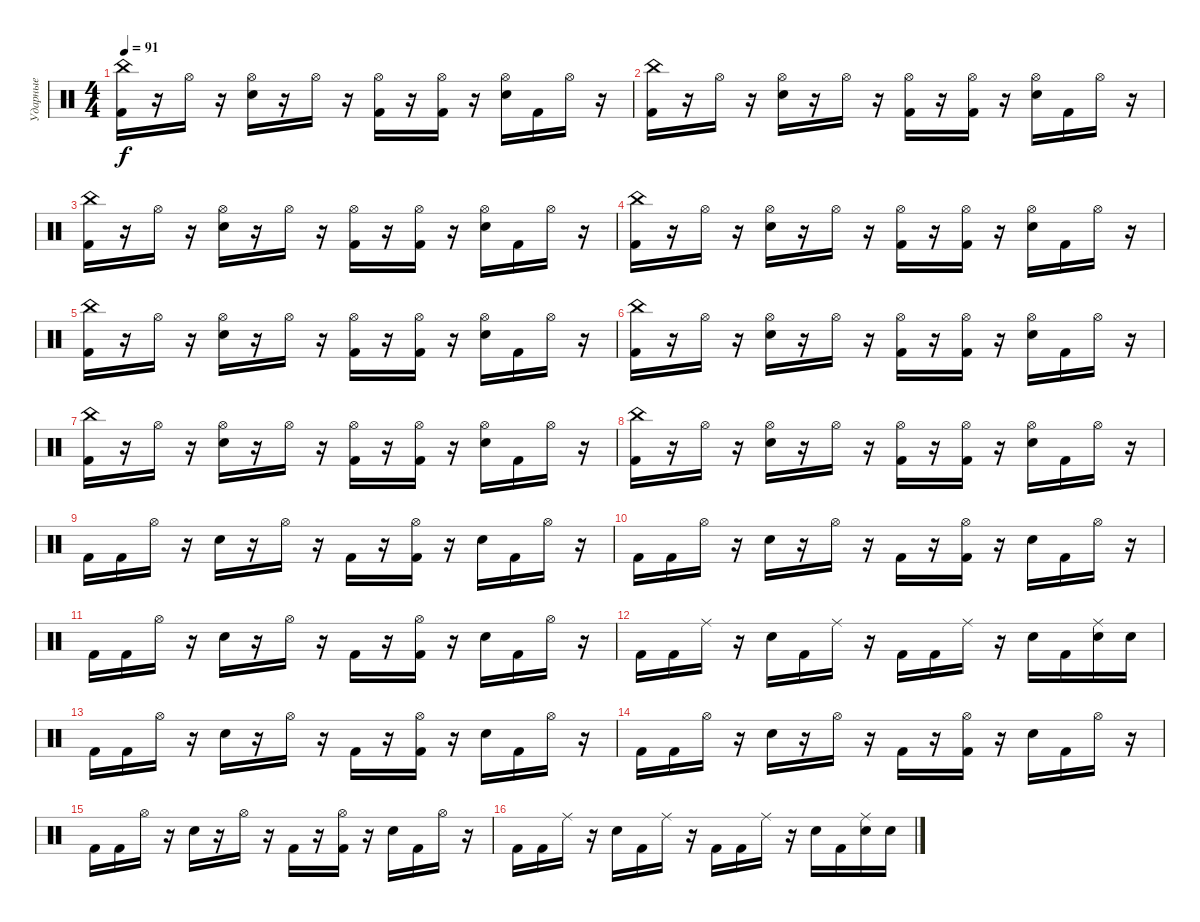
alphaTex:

\track ("Ударные" "Ударные") {instrument percussion}
\staff {score}
\articulation defaults
\ts (4 4)
\tempo 91
\clef neutral
\ks c
("China (hit)" "Kick (hit) 2").16{dy f} r.16 "Hi-Hat (open)".16 r.16 ("Hi-Hat (open)" "Snare (hit) 2").16 r.16 "Hi-Hat (open)".16 r.16 ("Hi-Hat (open)" "Kick (hit) 2").16 r.16 ("Hi-Hat (open)" "Kick (hit) 2").16 r.16 ("Hi-Hat (open)" "Snare (hit) 2").16 "Kick (hit) 2".16 "Hi-Hat (open)".16 r.16 |
("China (hit)" "Kick (hit) 2").16 r.16 "Hi-Hat (open)".16 r.16 ("Hi-Hat (open)" "Snare (hit) 2").16 r.16 "Hi-Hat (open)".16 r.16 ("Hi-Hat (open)" "Kick (hit) 2").16 r.16 ("Hi-Hat (open)" "Kick (hit) 2").16 r.16 ("Hi-Hat (open)" "Snare (hit) 2").16 "Kick (hit) 2".16 "Hi-Hat (open)".16 r.16 |
("China (hit)" "Kick (hit) 2").16 r.16 "Hi-Hat (open)".16 r.16 ("Hi-Hat (open)" "Snare (hit) 2").16 r.16 "Hi-Hat (open)".16 r.16 ("Hi-Hat (open)" "Kick (hit) 2").16 r.16 ("Hi-Hat (open)" "Kick (hit) 2").16 r.16 ("Hi-Hat (open)" "Snare (hit) 2").16 "Kick (hit) 2".16 "Hi-Hat (open)".16 r.16 |
("China (hit)" "Kick (hit) 2").16 r.16 "Hi-Hat (open)".16 r.16 ("Hi-Hat (open)" "Snare (hit) 2").16 r.16 "Hi-Hat (open)".16 r.16 ("Hi-Hat (open)" "Kick (hit) 2").16 r.16 ("Hi-Hat (open)" "Kick (hit) 2").16 r.16 ("Hi-Hat (open)" "Snare (hit) 2").16 "Kick (hit) 2".16 "Hi-Hat (open)".16 r.16 |
("China (hit)" "Kick (hit) 2").16 r.16 "Hi-Hat (open)".16 r.16 ("Hi-Hat (open)" "Snare (hit) 2").16 r.16 "Hi-Hat (open)".16 r.16 ("Hi-Hat (open)" "Kick (hit) 2").16 r.16 ("Hi-Hat (open)" "Kick (hit) 2").16 r.16 ("Hi-Hat (open)" "Snare (hit) 2").16 "Kick (hit) 2".16 "Hi-Hat (open)".16 r.16 |
("China (hit)" "Kick (hit) 2").16 r.16 "Hi-Hat (open)".16 r.16 ("Hi-Hat (open)" "Snare (hit) 2").16 r.16 "Hi-Hat (open)".16 r.16 ("Hi-Hat (open)" "Kick (hit) 2").16 r.16 ("Hi-Hat (open)" "Kick (hit) 2").16 r.16 ("Hi-Hat (open)" "Snare (hit) 2").16 "Kick (hit) 2".16 "Hi-Hat (open)".16 r.16 |
("China (hit)" "Kick (hit) 2").16 r.16 "Hi-Hat (open)".16 r.16 ("Hi-Hat (open)" "Snare (hit) 2").16 r.16 "Hi-Hat (open)".16 r.16 ("Hi-Hat (open)" "Kick (hit) 2").16 r.16 ("Hi-Hat (open)" "Kick (hit) 2").16 r.16 ("Hi-Hat (open)" "Snare (hit) 2").16 "Kick (hit) 2".16 "Hi-Hat (open)".16 r.16 |
("China (hit)" "Kick (hit) 2").16 r.16 "Hi-Hat (open)".16 r.16 ("Hi-Hat (open)" "Snare (hit) 2").16 r.16 "Hi-Hat (open)".16 r.16 ("Hi-Hat (open)" "Kick (hit) 2").16 r.16 ("Hi-Hat (open)" "Kick (hit) 2").16 r.16 ("Hi-Hat (open)" "Snare (hit) 2").16 "Kick (hit) 2".16 "Hi-Hat (open)".16 r.16 |
"Kick (hit) 2".16 "Kick (hit) 2".16 "Hi-Hat (open)".16 r.16 "Snare (hit) 2".16 r.16 "Hi-Hat (open)".16 r.16 "Kick (hit) 2".16 r.16 ("Hi-Hat (open)" "Kick (hit) 2").16 r.16 "Snare (hit) 2".16 "Kick (hit) 2".16 "Hi-Hat (open)".16 r.16 |
"Kick (hit) 2".16 "Kick (hit) 2".16 "Hi-Hat (open)".16 r.16 "Snare (hit) 2".16 r.16 "Hi-Hat (open)".16 r.16 "Kick (hit) 2".16 r.16 ("Hi-Hat (open)" "Kick (hit) 2").16 r.16 "Snare (hit) 2".16 "Kick (hit) 2".16 "Hi-Hat (open)".16 r.16 |
"Kick (hit) 2".16 "Kick (hit) 2".16 "Hi-Hat (open)".16 r.16 "Snare (hit) 2".16 r.16 "Hi-Hat (open)".16 r.16 "Kick (hit) 2".16 r.16 ("Hi-Hat (open)" "Kick (hit) 2").16 r.16 "Snare (hit) 2".16 "Kick (hit) 2".16 "Hi-Hat (open)".16 r.16 |
"Kick (hit) 2".16 "Kick (hit) 2".16 "Ride (middle)".16 r.16 "Snare (hit) 2".16 "Kick (hit) 2".16 "Ride (middle)".16 r.16 "Kick (hit) 2".16 "Kick (hit) 2".16 "Ride (middle)".16 r.16 "Snare (hit) 2".16 "Kick (hit) 2".16 ("Ride (middle)" "Snare (hit) 2").16 "Snare (hit) 2".16 |
"Kick (hit) 2".16 "Kick (hit) 2".16 "Hi-Hat (open)".16 r.16 "Snare (hit) 2".16 r.16 "Hi-Hat (open)".16 r.16 "Kick (hit) 2".16 r.16 ("Hi-Hat (open)" "Kick (hit) 2").16 r.16 "Snare (hit) 2".16 "Kick (hit) 2".16 "Hi-Hat (open)".16 r.16 |
"Kick (hit) 2".16 "Kick (hit) 2".16 "Hi-Hat (open)".16 r.16 "Snare (hit) 2".16 r.16 "Hi-Hat (open)".16 r.16 "Kick (hit) 2".16 r.16 ("Hi-Hat (open)" "Kick (hit) 2").16 r.16 "Snare (hit) 2".16 "Kick (hit) 2".16 "Hi-Hat (open)".16 r.16 |
"Kick (hit) 2".16 "Kick (hit) 2".16 "Hi-Hat (open)".16 r.16 "Snare (hit) 2".16 r.16 "Hi-Hat (open)".16 r.16 "Kick (hit) 2".16 r.16 ("Hi-Hat (open)" "Kick (hit) 2").16 r.16 "Snare (hit) 2".16 "Kick (hit) 2".16 "Hi-Hat (open)".16 r.16 |
"Kick (hit) 2".16 "Kick (hit) 2".16 "Ride (middle)".16 r.16 "Snare (hit) 2".16 "Kick (hit) 2".16 "Ride (middle)".16 r.16 "Kick (hit) 2".16 "Kick (hit) 2".16 "Ride (middle)".16 r.16 "Snare (hit) 2".16 "Kick (hit) 2".16 ("Ride (middle)" "Snare (hit) 2").16 "Snare (hit) 2".16
